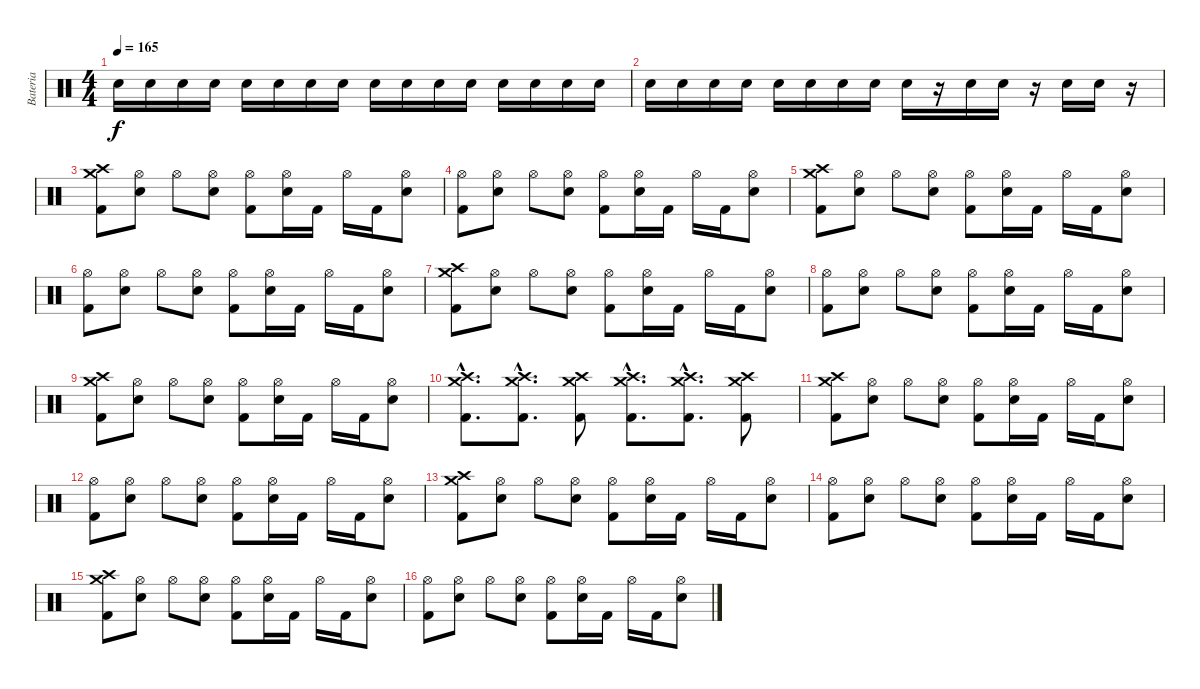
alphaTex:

\track ("Bateria" "Bateria") {instrument percussion}
\staff {score}
\articulation defaults
\ts (4 4)
\tempo 165
\clef neutral
\ks c "Electric Snare (hit)".16{dy f} "Electric Snare (hit)".16 "Electric Snare (hit)".16 "Electric Snare (hit)".16 "Electric Snare (hit)".16 "Electric Snare (hit)".16 "Electric Snare (hit)".16 "Electric Snare (hit)".16 "Electric Snare (hit)".16 "Electric Snare (hit)".16 "Electric Snare (hit)".16 "Electric Snare (hit)".16 "Electric Snare (hit)".16 "Electric Snare (hit)".16 "Electric Snare (hit)".16 "Electric Snare (hit)".16
|
"Electric Snare (hit)".16 "Electric Snare (hit)".16 "Electric Snare (hit)".16 "Electric Snare (hit)".16 "Electric Snare (hit)".16 "Electric Snare (hit)".16 "Electric Snare (hit)".16 "Electric Snare (hit)".16 "Electric Snare (hit)".16 r.16 "Electric Snare (hit)".16 "Electric Snare (hit)".16 r.16 "Electric Snare (hit)".16 "Electric Snare (hit)".16 r.16 |
("Kick (hit) 2" "Crash medium (hit)" "Crash high (hit)").8 ("Hi-Hat (open)" "Electric Snare (hit)").8 "Hi-Hat (open)".8 ("Hi-Hat (open)" "Electric Snare (hit)").8 ("Kick (hit) 2" "Hi-Hat (open)").8 ("Hi-Hat (open)" "Electric Snare (hit)").16 "Kick (hit) 2".16 "Hi-Hat (open)".16 "Kick (hit) 2".16 ("Hi-Hat (open)" "Electric Snare (hit)").8 |
("Kick (hit) 2" "Hi-Hat (open)").8 ("Hi-Hat (open)" "Electric Snare (hit)").8 "Hi-Hat (open)".8 ("Hi-Hat (open)" "Electric Snare (hit)").8 ("Kick (hit) 2" "Hi-Hat (open)").8 ("Hi-Hat (open)" "Electric Snare (hit)").16 "Kick (hit) 2".16 "Hi-Hat (open)".16 "Kick (hit) 2".16 ("Hi-Hat (open)" "Electric Snare (hit)").8 |
("Kick (hit) 2" "Crash medium (hit)" "Crash high (hit)").8 ("Hi-Hat (open)" "Electric Snare (hit)").8 "Hi-Hat (open)".8 ("Hi-Hat (open)" "Electric Snare (hit)").8 ("Kick (hit) 2" "Hi-Hat (open)").8 ("Hi-Hat (open)" "Electric Snare (hit)").16 "Kick (hit) 2".16 "Hi-Hat (open)".16 "Kick (hit) 2".16 ("Hi-Hat (open)" "Electric Snare (hit)").8 |
("Kick (hit) 2" "Hi-Hat (open)").8 ("Hi-Hat (open)" "Electric Snare (hit)").8 "Hi-Hat (open)".8 ("Hi-Hat (open)" "Electric Snare (hit)").8 ("Kick (hit) 2" "Hi-Hat (open)").8 ("Hi-Hat (open)" "Electric Snare (hit)").16 "Kick (hit) 2".16 "Hi-Hat (open)".16 "Kick (hit) 2".16 ("Hi-Hat (open)" "Electric Snare (hit)").8 |
("Kick (hit) 2" "Crash medium (hit)" "Crash high (hit)").8 ("Hi-Hat (open)" "Electric Snare (hit)").8 "Hi-Hat (open)".8 ("Hi-Hat (open)" "Electric Snare (hit)").8 ("Kick (hit) 2" "Hi-Hat (open)").8 ("Hi-Hat (open)" "Electric Snare (hit)").16 "Kick (hit) 2".16 "Hi-Hat (open)".16 "Kick (hit) 2".16 ("Hi-Hat (open)" "Electric Snare (hit)").8 |
("Kick (hit) 2" "Hi-Hat (open)").8 ("Hi-Hat (open)" "Electric Snare (hit)").8 "Hi-Hat (open)".8 ("Hi-Hat (open)" "Electric Snare (hit)").8 ("Kick (hit) 2" "Hi-Hat (open)").8 ("Hi-Hat (open)" "Electric Snare (hit)").16 "Kick (hit) 2".16 "Hi-Hat (open)".16 "Kick (hit) 2".16 ("Hi-Hat (open)" "Electric Snare (hit)").8 |
("Kick (hit) 2" "Crash medium (hit)" "Crash high (hit)").8 ("Hi-Hat (open)" "Electric Snare (hit)").8 "Hi-Hat (open)".8 ("Hi-Hat (open)" "Electric Snare (hit)").8 ("Kick (hit) 2" "Hi-Hat (open)").8 ("Hi-Hat (open)" "Electric Snare (hit)").16 "Kick (hit) 2".16 "Hi-Hat (open)".16 "Kick (hit) 2".16 ("Hi-Hat (open)" "Electric Snare (hit)").8 |
("Kick (hit) 2"{hac} "Crash medium (hit)"{hac} "Crash high (hit)"{hac}).8{d} ("Kick (hit) 2"{hac} "Crash medium (hit)"{hac} "Crash high (hit)"{hac}).8{d} ("Kick (hit) 2" "Crash medium (hit)" "Crash high (hit)").8 ("Kick (hit) 2"{hac} "Crash medium (hit)"{hac} "Crash high (hit)"{hac}).8{d} ("Kick (hit) 2"{hac} "Crash medium (hit)"{hac} "Crash high (hit)"{hac}).8{d} ("Kick (hit) 2" "Crash medium (hit)" "Crash high (hit)").8 |
("Kick (hit) 2" "Crash medium (hit)" "Crash high (hit)").8 ("Hi-Hat (open)" "Electric Snare (hit)").8 "Hi-Hat (open)".8 ("Hi-Hat (open)" "Electric Snare (hit)").8 ("Kick (hit) 2" "Hi-Hat (open)").8 ("Hi-Hat (open)" "Electric Snare (hit)").16 "Kick (hit) 2".16 "Hi-Hat (open)".16 "Kick (hit) 2".16 ("Hi-Hat (open)" "Electric Snare (hit)").8 |
("Kick (hit) 2" "Hi-Hat (open)").8 ("Hi-Hat (open)" "Electric Snare (hit)").8 "Hi-Hat (open)".8 ("Hi-Hat (open)" "Electric Snare (hit)").8 ("Kick (hit) 2" "Hi-Hat (open)").8 ("Hi-Hat (open)" "Electric Snare (hit)").16 "Kick (hit) 2".16 "Hi-Hat (open)".16 "Kick (hit) 2".16 ("Hi-Hat (open)" "Electric Snare (hit)").8 |
("Kick (hit) 2" "Crash medium (hit)" "Crash high (hit)").8 ("Hi-Hat (open)" "Electric Snare (hit)").8 "Hi-Hat (open)".8 ("Hi-Hat (open)" "Electric Snare (hit)").8 ("Kick (hit) 2" "Hi-Hat (open)").8 ("Hi-Hat (open)" "Electric Snare (hit)").16 "Kick (hit) 2".16 "Hi-Hat (open)".16 "Kick (hit) 2".16 ("Hi-Hat (open)" "Electric Snare (hit)").8 |
("Kick (hit) 2" "Hi-Hat (open)").8 ("Hi-Hat (open)" "Electric Snare (hit)").8 "Hi-Hat (open)".8 ("Hi-Hat (open)" "Electric Snare (hit)").8 ("Kick (hit) 2" "Hi-Hat (open)").8 ("Hi-Hat (open)" "Electric Snare (hit)").16 "Kick (hit) 2".16 "Hi-Hat (open)".16 "Kick (hit) 2".16 ("Hi-Hat (open)" "Electric Snare (hit)").8 |
("Kick (hit) 2" "Crash medium (hit)" "Crash high (hit)").8 ("Hi-Hat (open)" "Electric Snare (hit)").8 "Hi-Hat (open)".8 ("Hi-Hat (open)" "Electric Snare (hit)").8 ("Kick (hit) 2" "Hi-Hat (open)").8 ("Hi-Hat (open)" "Electric Snare (hit)").16 "Kick (hit) 2".16 "Hi-Hat (open)".16 "Kick (hit) 2".16 ("Hi-Hat (open)" "Electric Snare (hit)").8 |
("Kick (hit) 2" "Hi-Hat (open)").8 ("Hi-Hat (open)" "Electric Snare (hit)").8 "Hi-Hat (open)".8 ("Hi-Hat (open)" "Electric Snare (hit)").8 ("Kick (hit) 2" "Hi-Hat (open)").8 ("Hi-Hat (open)" "Electric Snare (hit)").16 "Kick (hit) 2".16 "Hi-Hat (open)".16 "Kick (hit) 2".16 ("Hi-Hat (open)" "Electric Snare (hit)").8
